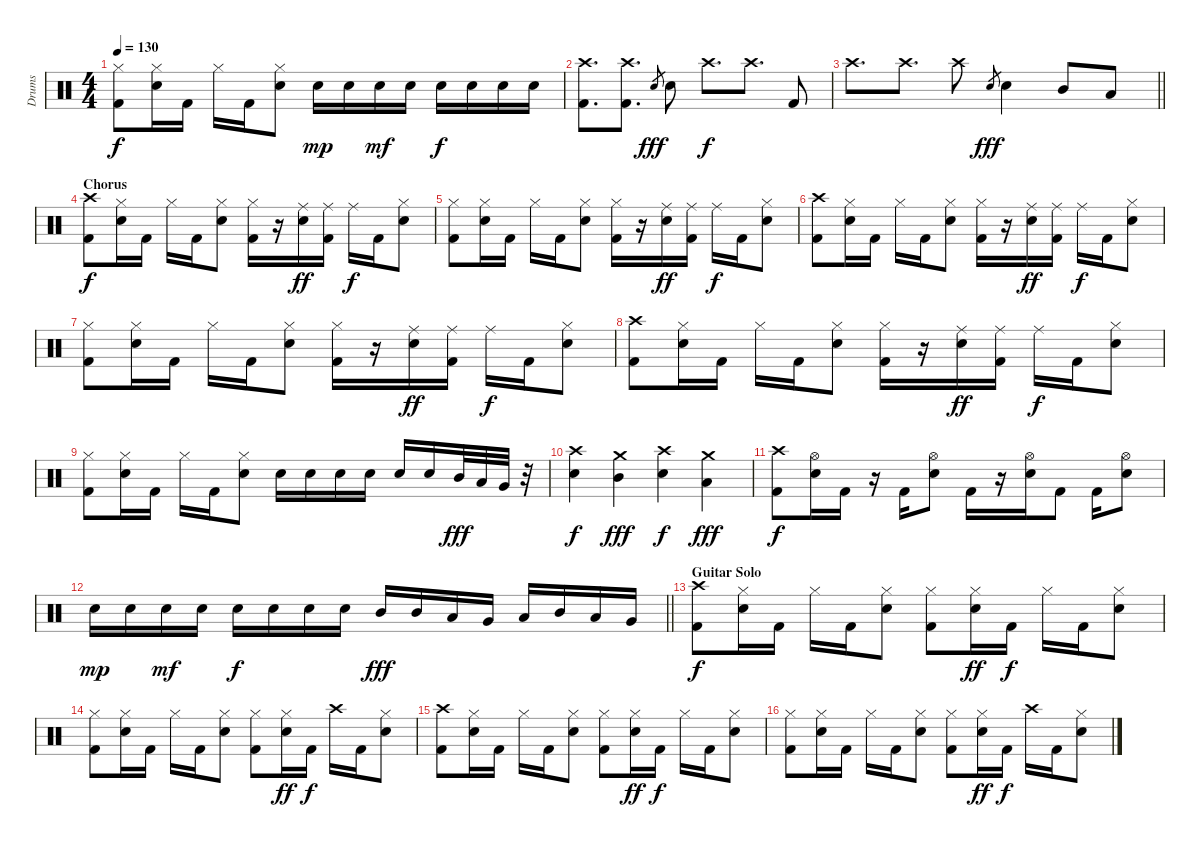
\track ("Drums" "Drums") {instrument percussion}
\staff {score}
\articulation defaults
\ts (4 4)
\tempo 130
\clef neutral
\ks c
("Hi-Hat (closed)" "Kick (hit) 2").8{dy f} ("Hi-Hat (closed)" "Snare (hit) 2").16 "Kick (hit) 2".16 "Hi-Hat (closed)".16 "Kick (hit) 2".16 ("Hi-Hat (closed)" "Snare (hit) 2").8 "Snare (hit) 2".16{dy mp} "Snare (hit) 2".16 "Snare (hit) 2".16{dy mf} "Snare (hit) 2".16 "Snare (hit) 2".16{dy f} "Snare (hit) 2".16 "Snare (hit) 2".16 "Snare (hit) 2".16 |
("Crash high (hit)" "Kick (hit) 2").8{d} ("Crash high (hit)" "Kick (hit) 2").8{d} "Snare (hit) 2".8{gr dy fff} "Snare (hit) 2".8 "Crash high (hit)".8{d dy f} "Crash high (hit)".8{d} "Kick (hit) 2".8 |
\barLineRight lightlight "Crash high (hit)".8{d} "Crash high (hit)".8{d} "Crash high (hit)".8 "Snare (hit) 2".8{gr dy fff} "Snare (hit) 2".4 "Mid Tom (hit)".8 "Low Tom (hit)".8
|
\section ("" "Chorus")
("Crash high (hit)" "Kick (hit) 2").8{dy f} ("Hi-Hat (closed)" "Snare (hit) 2").16 "Kick (hit) 2".16 "Hi-Hat (closed)".16 "Kick (hit) 2".16 ("Hi-Hat (closed)" "Snare (hit) 2").8 ("Hi-Hat (closed)" "Kick (hit) 2").16 r.16 ("Ride (middle)" "Snare (hit) 2").16{dy ff} ("Ride (middle)" "Kick (hit) 2").16 "Ride (middle)".16{dy f} "Kick (hit) 2".16 ("Hi-Hat (closed)" "Snare (hit) 2").8 |
("Hi-Hat (closed)" "Kick (hit) 2").8 ("Hi-Hat (closed)" "Snare (hit) 2").16 "Kick (hit) 2".16 "Hi-Hat (closed)".16 "Kick (hit) 2".16 ("Hi-Hat (closed)" "Snare (hit) 2").8 ("Hi-Hat (closed)" "Kick (hit) 2").16 r.16 ("Ride (middle)" "Snare (hit) 2").16{dy ff} ("Ride (middle)" "Kick (hit) 2").16 "Ride (middle)".16{dy f} "Kick (hit) 2".16 ("Hi-Hat (closed)" "Snare (hit) 2").8 |
("Crash high (hit)" "Kick (hit) 2").8 ("Hi-Hat (closed)" "Snare (hit) 2").16 "Kick (hit) 2".16 "Hi-Hat (closed)".16 "Kick (hit) 2".16 ("Hi-Hat (closed)" "Snare (hit) 2").8 ("Hi-Hat (closed)" "Kick (hit) 2").16 r.16 ("Ride (middle)" "Snare (hit) 2").16{dy ff} ("Ride (middle)" "Kick (hit) 2").16 "Ride (middle)".16{dy f} "Kick (hit) 2".16 ("Hi-Hat (closed)" "Snare (hit) 2").8 |
("Hi-Hat (closed)" "Kick (hit) 2").8 ("Hi-Hat (closed)" "Snare (hit) 2").16 "Kick (hit) 2".16 "Hi-Hat (closed)".16 "Kick (hit) 2".16 ("Hi-Hat (closed)" "Snare (hit) 2").8 ("Hi-Hat (closed)" "Kick (hit) 2").16 r.16 ("Ride (middle)" "Snare (hit) 2").16{dy ff} ("Ride (middle)" "Kick (hit) 2").16 "Ride (middle)".16{dy f} "Kick (hit) 2".16 ("Hi-Hat (closed)" "Snare (hit) 2").8 |
("Crash high (hit)" "Kick (hit) 2").8 ("Hi-Hat (closed)" "Snare (hit) 2").16 "Kick (hit) 2".16 "Hi-Hat (closed)".16 "Kick (hit) 2".16 ("Hi-Hat (closed)" "Snare (hit) 2").8 ("Hi-Hat (closed)" "Kick (hit) 2").16 r.16 ("Ride (middle)" "Snare (hit) 2").16{dy ff} ("Ride (middle)" "Kick (hit) 2").16 "Ride (middle)".16{dy f} "Kick (hit) 2".16 ("Hi-Hat (closed)" "Snare (hit) 2").8 |
("Hi-Hat (closed)" "Kick (hit) 2").8 ("Hi-Hat (closed)" "Snare (hit) 2").16 "Kick (hit) 2".16 "Hi-Hat (closed)".16 "Kick (hit) 2".16 ("Hi-Hat (closed)" "Snare (hit) 2").8 "Snare (hit) 2".16 "Snare (hit) 2".16 "Snare (hit) 2".16 "Snare (hit) 2".16 "Snare (hit) 2".16 "Snare (hit) 2".16 "Mid Tom (hit)".32{dy fff} "Low Tom (hit)".32 "Very Low Tom (hit)".32 r.32 |
("Crash high (hit)" "Snare (hit) 2").4{dy f} ("Crash medium (hit)" "Mid Tom (hit)").4{dy fff} ("Crash high (hit)" "Snare (hit) 2").4{dy f} ("Crash medium (hit)" "Low Tom (hit)").4{dy fff} |
("Crash high (hit)" "Kick (hit) 2").8{dy f} ("Hi-Hat (open)" "Snare (hit) 2").16 "Kick (hit) 2".16 r.16 "Kick (hit) 2".16 ("Hi-Hat (open)" "Snare (hit) 2").8 "Kick (hit) 2".16 r.16 ("Hi-Hat (open)" "Snare (hit) 2").16 "Kick (hit) 2".8 "Kick (hit) 2".16 ("Hi-Hat (open)" "Snare (hit) 2").8 |
\barLineRight lightlight "Snare (hit) 2".16{dy mp} "Snare (hit) 2".16 "Snare (hit) 2".16{dy mf} "Snare (hit) 2".16 "Snare (hit) 2".16{dy f} "Snare (hit) 2".16 "Snare (hit) 2".16 "Snare (hit) 2".16 "Mid Tom (hit)".16{dy fff} "Mid Tom (hit)".16 "Low Tom (hit)".16 "Very Low Tom (hit)".16 "Low Tom (hit)".16 "Mid Tom (hit)".16 "Low Tom (hit)".16 "Very Low Tom (hit)".16
|
\section ("" "Guitar Solo")
("Crash high (hit)" "Kick (hit) 2").8{dy f} ("Hi-Hat (closed)" "Snare (hit) 2").16 "Kick (hit) 2".16 "Hi-Hat (closed)".16 "Kick (hit) 2".16 ("Hi-Hat (closed)" "Snare (hit) 2").8 ("Hi-Hat (closed)" "Kick (hit) 2").8 ("Hi-Hat (closed)" "Snare (hit) 2").16{dy ff} "Kick (hit) 2".16{dy f} "Hi-Hat (closed)".16 "Kick (hit) 2".16 ("Hi-Hat (closed)" "Snare (hit) 2").8 |
("Hi-Hat (closed)" "Kick (hit) 2").8 ("Hi-Hat (closed)" "Snare (hit) 2").16 "Kick (hit) 2".16 "Hi-Hat (closed)".16 "Kick (hit) 2".16 ("Hi-Hat (closed)" "Snare (hit) 2").8 ("Hi-Hat (closed)" "Kick (hit) 2").8 ("Hi-Hat (closed)" "Snare (hit) 2").16{dy ff} "Kick (hit) 2".16{dy f} "Crash high (hit)".16 "Kick (hit) 2".16 ("Hi-Hat (closed)" "Snare (hit) 2").8 |
("Crash high (hit)" "Kick (hit) 2").8 ("Hi-Hat (closed)" "Snare (hit) 2").16 "Kick (hit) 2".16 "Hi-Hat (closed)".16 "Kick (hit) 2".16 ("Hi-Hat (closed)" "Snare (hit) 2").8 ("Hi-Hat (closed)" "Kick (hit) 2").8 ("Hi-Hat (closed)" "Snare (hit) 2").16{dy ff} "Kick (hit) 2".16{dy f} "Hi-Hat (closed)".16 "Kick (hit) 2".16 ("Hi-Hat (closed)" "Snare (hit) 2").8 |
("Hi-Hat (closed)" "Kick (hit) 2").8 ("Hi-Hat (closed)" "Snare (hit) 2").16 "Kick (hit) 2".16 "Hi-Hat (closed)".16 "Kick (hit) 2".16 ("Hi-Hat (closed)" "Snare (hit) 2").8 ("Hi-Hat (closed)" "Kick (hit) 2").8 ("Hi-Hat (closed)" "Snare (hit) 2").16{dy ff} "Kick (hit) 2".16{dy f} "Crash high (hit)".16 "Kick (hit) 2".16 ("Hi-Hat (closed)" "Snare (hit) 2").8
